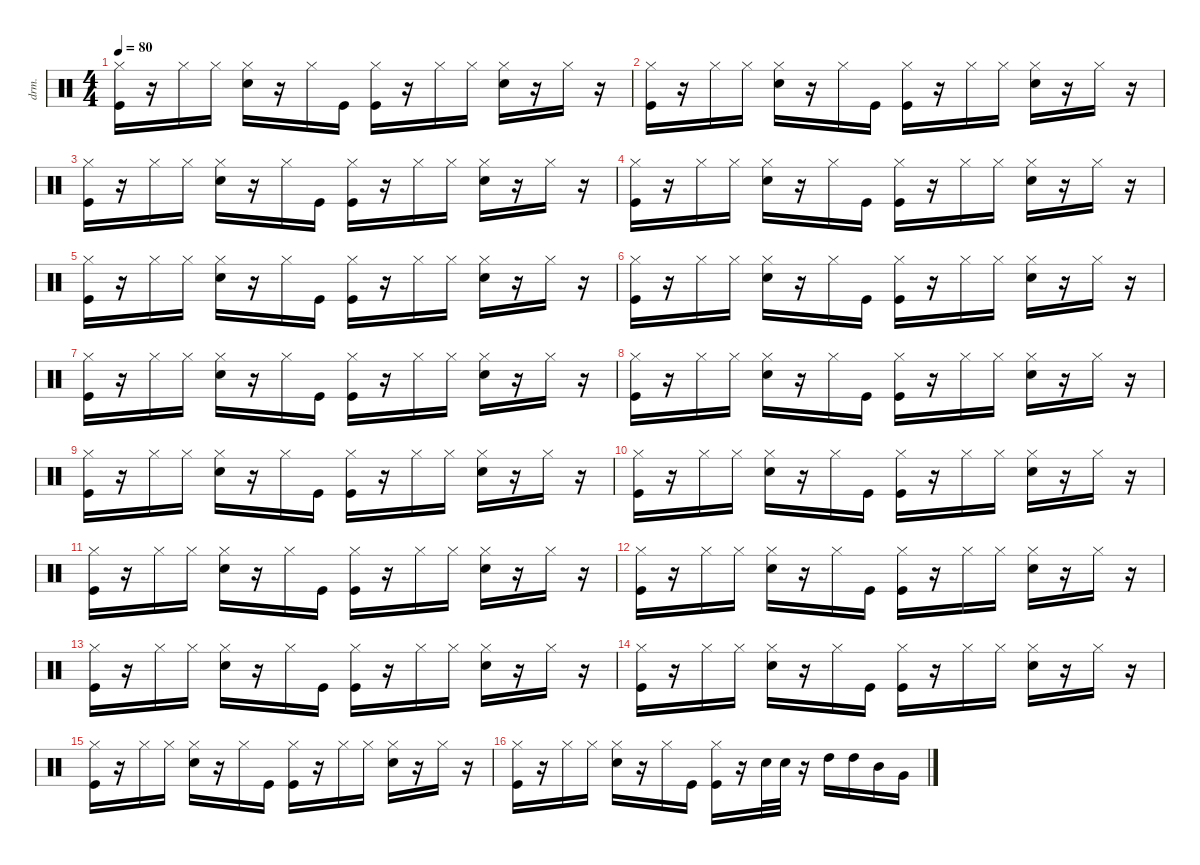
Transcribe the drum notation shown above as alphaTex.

\defaultSystemsLayout 4
\hideDynamics
\bracketExtendMode nobrackets
\track ("Percussions" "drm.") {instrument percussion}
\staff {score}
\articulation defaults
\ts (4 4)
\tempo 80
\clef neutral
\ks c
("Kick (hit)" "Hi-Hat (closed)").16{dy f beam Down} r.16{beam Down} "Hi-Hat (closed)".16{beam Down} "Hi-Hat (closed)".16{beam Down} ("Snare (hit) 2" "Hi-Hat (closed)").16{beam Down} r.16{beam Down} "Hi-Hat (closed)".16{beam Down} "Kick (hit)".16{beam Down} ("Kick (hit)" "Hi-Hat (closed)").16{beam Down} r.16{beam Down} "Hi-Hat (closed)".16{beam Down} "Hi-Hat (closed)".16{beam Down} ("Snare (hit) 2" "Hi-Hat (closed)").16{beam Down} r.16{beam Down} "Hi-Hat (closed)".16{beam Down} r.16{beam Down} |
("Kick (hit)" "Hi-Hat (closed)").16{beam Down} r.16{beam Down} "Hi-Hat (closed)".16{beam Down} "Hi-Hat (closed)".16{beam Down} ("Snare (hit) 2" "Hi-Hat (closed)").16{beam Down} r.16{beam Down} "Hi-Hat (closed)".16{beam Down} "Kick (hit)".16{beam Down} ("Kick (hit)" "Hi-Hat (closed)").16{beam Down} r.16{beam Down} "Hi-Hat (closed)".16{beam Down} "Hi-Hat (closed)".16{beam Down} ("Snare (hit) 2" "Hi-Hat (closed)").16{beam Down} r.16{beam Down} "Hi-Hat (closed)".16{beam Down} r.16{beam Down} |
("Kick (hit)" "Hi-Hat (closed)").16{beam Down} r.16{beam Down} "Hi-Hat (closed)".16{beam Down} "Hi-Hat (closed)".16{beam Down} ("Snare (hit) 2" "Hi-Hat (closed)").16{beam Down} r.16{beam Down} "Hi-Hat (closed)".16{beam Down} "Kick (hit)".16{beam Down} ("Kick (hit)" "Hi-Hat (closed)").16{beam Down} r.16{beam Down} "Hi-Hat (closed)".16{beam Down} "Hi-Hat (closed)".16{beam Down} ("Snare (hit) 2" "Hi-Hat (closed)").16{beam Down} r.16{beam Down} "Hi-Hat (closed)".16{beam Down} r.16{beam Down} |
("Kick (hit)" "Hi-Hat (closed)").16{beam Down} r.16{beam Down} "Hi-Hat (closed)".16{beam Down} "Hi-Hat (closed)".16{beam Down} ("Snare (hit) 2" "Hi-Hat (closed)").16{beam Down} r.16{beam Down} "Hi-Hat (closed)".16{beam Down} "Kick (hit)".16{beam Down} ("Kick (hit)" "Hi-Hat (closed)").16{beam Down} r.16{beam Down} "Hi-Hat (closed)".16{beam Down} "Hi-Hat (closed)".16{beam Down} ("Snare (hit) 2" "Hi-Hat (closed)").16{beam Down} r.16{beam Down} "Hi-Hat (closed)".16{beam Down} r.16{beam Down} |
("Kick (hit)" "Hi-Hat (closed)").16{beam Down} r.16{beam Down} "Hi-Hat (closed)".16{beam Down} "Hi-Hat (closed)".16{beam Down} ("Snare (hit) 2" "Hi-Hat (closed)").16{beam Down} r.16{beam Down} "Hi-Hat (closed)".16{beam Down} "Kick (hit)".16{beam Down} ("Kick (hit)" "Hi-Hat (closed)").16{beam Down} r.16{beam Down} "Hi-Hat (closed)".16{beam Down} "Hi-Hat (closed)".16{beam Down} ("Snare (hit) 2" "Hi-Hat (closed)").16{beam Down} r.16{beam Down} "Hi-Hat (closed)".16{beam Down} r.16{beam Down} |
("Kick (hit)" "Hi-Hat (closed)").16{beam Down} r.16{beam Down} "Hi-Hat (closed)".16{beam Down} "Hi-Hat (closed)".16{beam Down} ("Snare (hit) 2" "Hi-Hat (closed)").16{beam Down} r.16{beam Down} "Hi-Hat (closed)".16{beam Down} "Kick (hit)".16{beam Down} ("Kick (hit)" "Hi-Hat (closed)").16{beam Down} r.16{beam Down} "Hi-Hat (closed)".16{beam Down} "Hi-Hat (closed)".16{beam Down} ("Snare (hit) 2" "Hi-Hat (closed)").16{beam Down} r.16{beam Down} "Hi-Hat (closed)".16{beam Down} r.16{beam Down} |
("Kick (hit)" "Hi-Hat (closed)").16{beam Down} r.16{beam Down} "Hi-Hat (closed)".16{beam Down} "Hi-Hat (closed)".16{beam Down} ("Snare (hit) 2" "Hi-Hat (closed)").16{beam Down} r.16{beam Down} "Hi-Hat (closed)".16{beam Down} "Kick (hit)".16{beam Down} ("Kick (hit)" "Hi-Hat (closed)").16{beam Down} r.16{beam Down} "Hi-Hat (closed)".16{beam Down} "Hi-Hat (closed)".16{beam Down} ("Snare (hit) 2" "Hi-Hat (closed)").16{beam Down} r.16{beam Down} "Hi-Hat (closed)".16{beam Down} r.16{beam Down} |
("Kick (hit)" "Hi-Hat (closed)").16{beam Down} r.16{beam Down} "Hi-Hat (closed)".16{beam Down} "Hi-Hat (closed)".16{beam Down} ("Snare (hit) 2" "Hi-Hat (closed)").16{beam Down} r.16{beam Down} "Hi-Hat (closed)".16{beam Down} "Kick (hit)".16{beam Down} ("Kick (hit)" "Hi-Hat (closed)").16{beam Down} r.16{beam Down} "Hi-Hat (closed)".16{beam Down} "Hi-Hat (closed)".16{beam Down} ("Snare (hit) 2" "Hi-Hat (closed)").16{beam Down} r.16{beam Down} "Hi-Hat (closed)".16{beam Down} r.16{beam Down} |
("Kick (hit)" "Hi-Hat (closed)").16{beam Down} r.16{beam Down} "Hi-Hat (closed)".16{beam Down} "Hi-Hat (closed)".16{beam Down} ("Snare (hit) 2" "Hi-Hat (closed)").16{beam Down} r.16{beam Down} "Hi-Hat (closed)".16{beam Down} "Kick (hit)".16{beam Down} ("Kick (hit)" "Hi-Hat (closed)").16{beam Down} r.16{beam Down} "Hi-Hat (closed)".16{beam Down} "Hi-Hat (closed)".16{beam Down} ("Snare (hit) 2" "Hi-Hat (closed)").16{beam Down} r.16{beam Down} "Hi-Hat (closed)".16{beam Down} r.16{beam Down} |
("Kick (hit)" "Hi-Hat (closed)").16{beam Down} r.16{beam Down} "Hi-Hat (closed)".16{beam Down} "Hi-Hat (closed)".16{beam Down} ("Snare (hit) 2" "Hi-Hat (closed)").16{beam Down} r.16{beam Down} "Hi-Hat (closed)".16{beam Down} "Kick (hit)".16{beam Down} ("Kick (hit)" "Hi-Hat (closed)").16{beam Down} r.16{beam Down} "Hi-Hat (closed)".16{beam Down} "Hi-Hat (closed)".16{beam Down} ("Snare (hit) 2" "Hi-Hat (closed)").16{beam Down} r.16{beam Down} "Hi-Hat (closed)".16{beam Down} r.16{beam Down} |
("Kick (hit)" "Hi-Hat (closed)").16{beam Down} r.16{beam Down} "Hi-Hat (closed)".16{beam Down} "Hi-Hat (closed)".16{beam Down} ("Snare (hit) 2" "Hi-Hat (closed)").16{beam Down} r.16{beam Down} "Hi-Hat (closed)".16{beam Down} "Kick (hit)".16{beam Down} ("Kick (hit)" "Hi-Hat (closed)").16{beam Down} r.16{beam Down} "Hi-Hat (closed)".16{beam Down} "Hi-Hat (closed)".16{beam Down} ("Snare (hit) 2" "Hi-Hat (closed)").16{beam Down} r.16{beam Down} "Hi-Hat (closed)".16{beam Down} r.16{beam Down} |
("Kick (hit)" "Hi-Hat (closed)").16{beam Down} r.16{beam Down} "Hi-Hat (closed)".16{beam Down} "Hi-Hat (closed)".16{beam Down} ("Snare (hit) 2" "Hi-Hat (closed)").16{beam Down} r.16{beam Down} "Hi-Hat (closed)".16{beam Down} "Kick (hit)".16{beam Down} ("Kick (hit)" "Hi-Hat (closed)").16{beam Down} r.16{beam Down} "Hi-Hat (closed)".16{beam Down} "Hi-Hat (closed)".16{beam Down} ("Snare (hit) 2" "Hi-Hat (closed)").16{beam Down} r.16{beam Down} "Hi-Hat (closed)".16{beam Down} r.16{beam Down} |
("Kick (hit)" "Hi-Hat (closed)").16{beam Down} r.16{beam Down} "Hi-Hat (closed)".16{beam Down} "Hi-Hat (closed)".16{beam Down} ("Snare (hit) 2" "Hi-Hat (closed)").16{beam Down} r.16{beam Down} "Hi-Hat (closed)".16{beam Down} "Kick (hit)".16{beam Down} ("Kick (hit)" "Hi-Hat (closed)").16{beam Down} r.16{beam Down} "Hi-Hat (closed)".16{beam Down} "Hi-Hat (closed)".16{beam Down} ("Snare (hit) 2" "Hi-Hat (closed)").16{beam Down} r.16{beam Down} "Hi-Hat (closed)".16{beam Down} r.16{beam Down} |
("Kick (hit)" "Hi-Hat (closed)").16{beam Down} r.16{beam Down} "Hi-Hat (closed)".16{beam Down} "Hi-Hat (closed)".16{beam Down} ("Snare (hit) 2" "Hi-Hat (closed)").16{beam Down} r.16{beam Down} "Hi-Hat (closed)".16{beam Down} "Kick (hit)".16{beam Down} ("Kick (hit)" "Hi-Hat (closed)").16{beam Down} r.16{beam Down} "Hi-Hat (closed)".16{beam Down} "Hi-Hat (closed)".16{beam Down} ("Snare (hit) 2" "Hi-Hat (closed)").16{beam Down} r.16{beam Down} "Hi-Hat (closed)".16{beam Down} r.16{beam Down} |
("Kick (hit)" "Hi-Hat (closed)").16{beam Down} r.16{beam Down} "Hi-Hat (closed)".16{beam Down} "Hi-Hat (closed)".16{beam Down} ("Snare (hit) 2" "Hi-Hat (closed)").16{beam Down} r.16{beam Down} "Hi-Hat (closed)".16{beam Down} "Kick (hit)".16{beam Down} ("Kick (hit)" "Hi-Hat (closed)").16{beam Down} r.16{beam Down} "Hi-Hat (closed)".16{beam Down} "Hi-Hat (closed)".16{beam Down} ("Snare (hit) 2" "Hi-Hat (closed)").16{beam Down} r.16{beam Down} "Hi-Hat (closed)".16{beam Down} r.16{beam Down} |
("Kick (hit)" "Hi-Hat (closed)").16{beam Down} r.16{beam Down} "Hi-Hat (closed)".16{beam Down} "Hi-Hat (closed)".16{beam Down} ("Snare (hit) 2" "Hi-Hat (closed)").16{beam Down} r.16{beam Down} "Hi-Hat (closed)".16{beam Down} "Kick (hit)".16{beam Down} ("Kick (hit)" "Hi-Hat (closed)").16{beam Down} r.16{beam Down} "Snare (hit) 2".32{beam Down} "Snare (hit) 2".32{beam Down} r.16{beam Down} "High Tom (hit)".16{beam Down} "High Tom (hit)".16{beam Down} "Mid Tom (hit)".16{beam Down} "Very Low Tom (hit)".16{beam Down}
